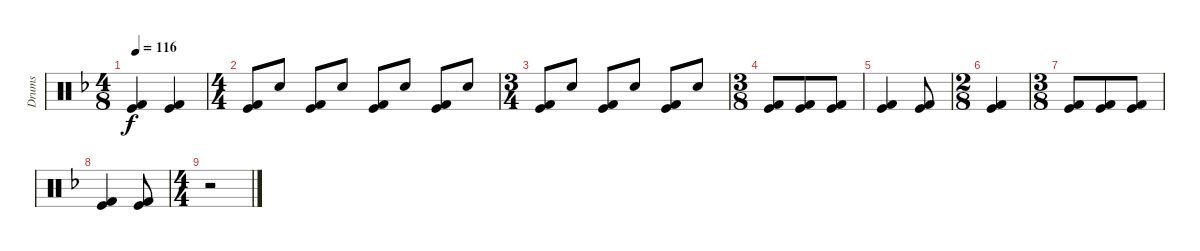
\track ("Drums" "Drums") {instrument percussion}
\staff {score}
\articulation defaults
\ts (4 8)
\tempo 116
\clef neutral
\ks f
("Kick (hit)" "Kick (hit) 2").4{dy f} ("Kick (hit)" "Kick (hit) 2").4 |
\ts (4 4)
("Kick (hit)" "Kick (hit) 2").8 "Snare (hit) 2".8 ("Kick (hit)" "Kick (hit) 2").8 "Snare (hit) 2".8 ("Kick (hit)" "Kick (hit) 2").8 "Snare (hit) 2".8 ("Kick (hit)" "Kick (hit) 2").8 "Snare (hit) 2".8 |
\ts (3 4)
("Kick (hit)" "Kick (hit) 2").8 "Snare (hit) 2".8 ("Kick (hit)" "Kick (hit) 2").8 "Snare (hit) 2".8 ("Kick (hit)" "Kick (hit) 2").8 "Snare (hit) 2".8 |
\ts (3 8)
("Kick (hit)" "Kick (hit) 2").8 ("Kick (hit)" "Kick (hit) 2").8 ("Kick (hit)" "Kick (hit) 2").8 |
("Kick (hit)" "Kick (hit) 2").4 ("Kick (hit)" "Kick (hit) 2").8 |
\ts (2 8)
("Kick (hit)" "Kick (hit) 2").4 |
\ts (3 8)
("Kick (hit)" "Kick (hit) 2").8 ("Kick (hit)" "Kick (hit) 2").8 ("Kick (hit)" "Kick (hit) 2").8 |
("Kick (hit)" "Kick (hit) 2").4 ("Kick (hit)" "Kick (hit) 2").8 |
\ts (4 4)
r.2
